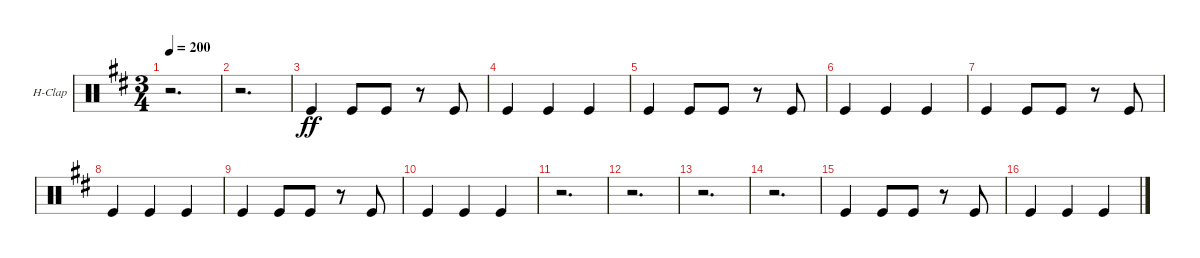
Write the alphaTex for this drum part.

\defaultSystemsLayout 4
\bracketExtendMode groupsimilarinstruments
\firstSystemTrackNameOrientation horizontal
\otherSystemsTrackNameOrientation horizontal
\track ("Hand Clap" "H-Clap") {instrument percussion}
\staff {score}
\articulation defaults
\ts (3 4)
\tempo 200
\clef neutral
\ks d
r.2{d dy ff} |
r.2{d} |
"Kick (hit)".4 "Kick (hit)".8 "Kick (hit)".8 r.8 "Kick (hit)".8 |
"Kick (hit)".4 "Kick (hit)".4 "Kick (hit)".4 |
"Kick (hit)".4 "Kick (hit)".8 "Kick (hit)".8 r.8 "Kick (hit)".8 |
"Kick (hit)".4 "Kick (hit)".4 "Kick (hit)".4 |
"Kick (hit)".4 "Kick (hit)".8 "Kick (hit)".8 r.8 "Kick (hit)".8 |
"Kick (hit)".4 "Kick (hit)".4 "Kick (hit)".4 |
"Kick (hit)".4 "Kick (hit)".8 "Kick (hit)".8 r.8 "Kick (hit)".8 |
"Kick (hit)".4 "Kick (hit)".4 "Kick (hit)".4 |
r.2{d} |
r.2{d} |
r.2{d} |
r.2{d} |
"Kick (hit)".4 "Kick (hit)".8 "Kick (hit)".8 r.8 "Kick (hit)".8 |
"Kick (hit)".4 "Kick (hit)".4 "Kick (hit)".4
